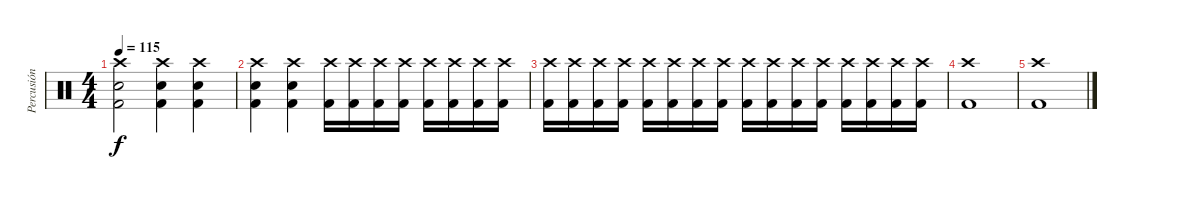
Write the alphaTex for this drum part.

\track ("Percusión" "Percusión") {instrument percussion}
\staff {score}
\articulation defaults
\ts (4 4)
\tempo 115
\clef neutral
\ks c
("Crash high (hit)" "Electric Snare (hit)" "Kick (hit) 2").2{dy f} ("Crash high (hit)" "Electric Snare (hit)" "Kick (hit) 2").4 ("Crash high (hit)" "Electric Snare (hit)" "Kick (hit) 2").4 |
("Crash high (hit)" "Electric Snare (hit)" "Kick (hit) 2").4 ("Crash high (hit)" "Electric Snare (hit)" "Kick (hit) 2").4 ("Crash high (hit)" "Kick (hit) 2").16 ("Crash high (hit)" "Kick (hit) 2").16 ("Crash high (hit)" "Kick (hit) 2").16 ("Crash high (hit)" "Kick (hit) 2").16 ("Crash high (hit)" "Kick (hit) 2").16 ("Crash high (hit)" "Kick (hit) 2").16 ("Crash high (hit)" "Kick (hit) 2").16 ("Crash high (hit)" "Kick (hit) 2").16 |
("Crash high (hit)" "Kick (hit) 2").16 ("Crash high (hit)" "Kick (hit) 2").16 ("Crash high (hit)" "Kick (hit) 2").16 ("Crash high (hit)" "Kick (hit) 2").16 ("Crash high (hit)" "Kick (hit) 2").16 ("Crash high (hit)" "Kick (hit) 2").16 ("Crash high (hit)" "Kick (hit) 2").16 ("Crash high (hit)" "Kick (hit) 2").16 ("Crash high (hit)" "Kick (hit) 2").16 ("Crash high (hit)" "Kick (hit) 2").16 ("Crash high (hit)" "Kick (hit) 2").16 ("Crash high (hit)" "Kick (hit) 2").16 ("Crash high (hit)" "Kick (hit) 2").16 ("Crash high (hit)" "Kick (hit) 2").16 ("Crash high (hit)" "Kick (hit) 2").16 ("Crash high (hit)" "Kick (hit) 2").16 |
("Crash high (hit)" "Kick (hit) 2").1 |
("Crash high (hit)" "Kick (hit) 2").1
